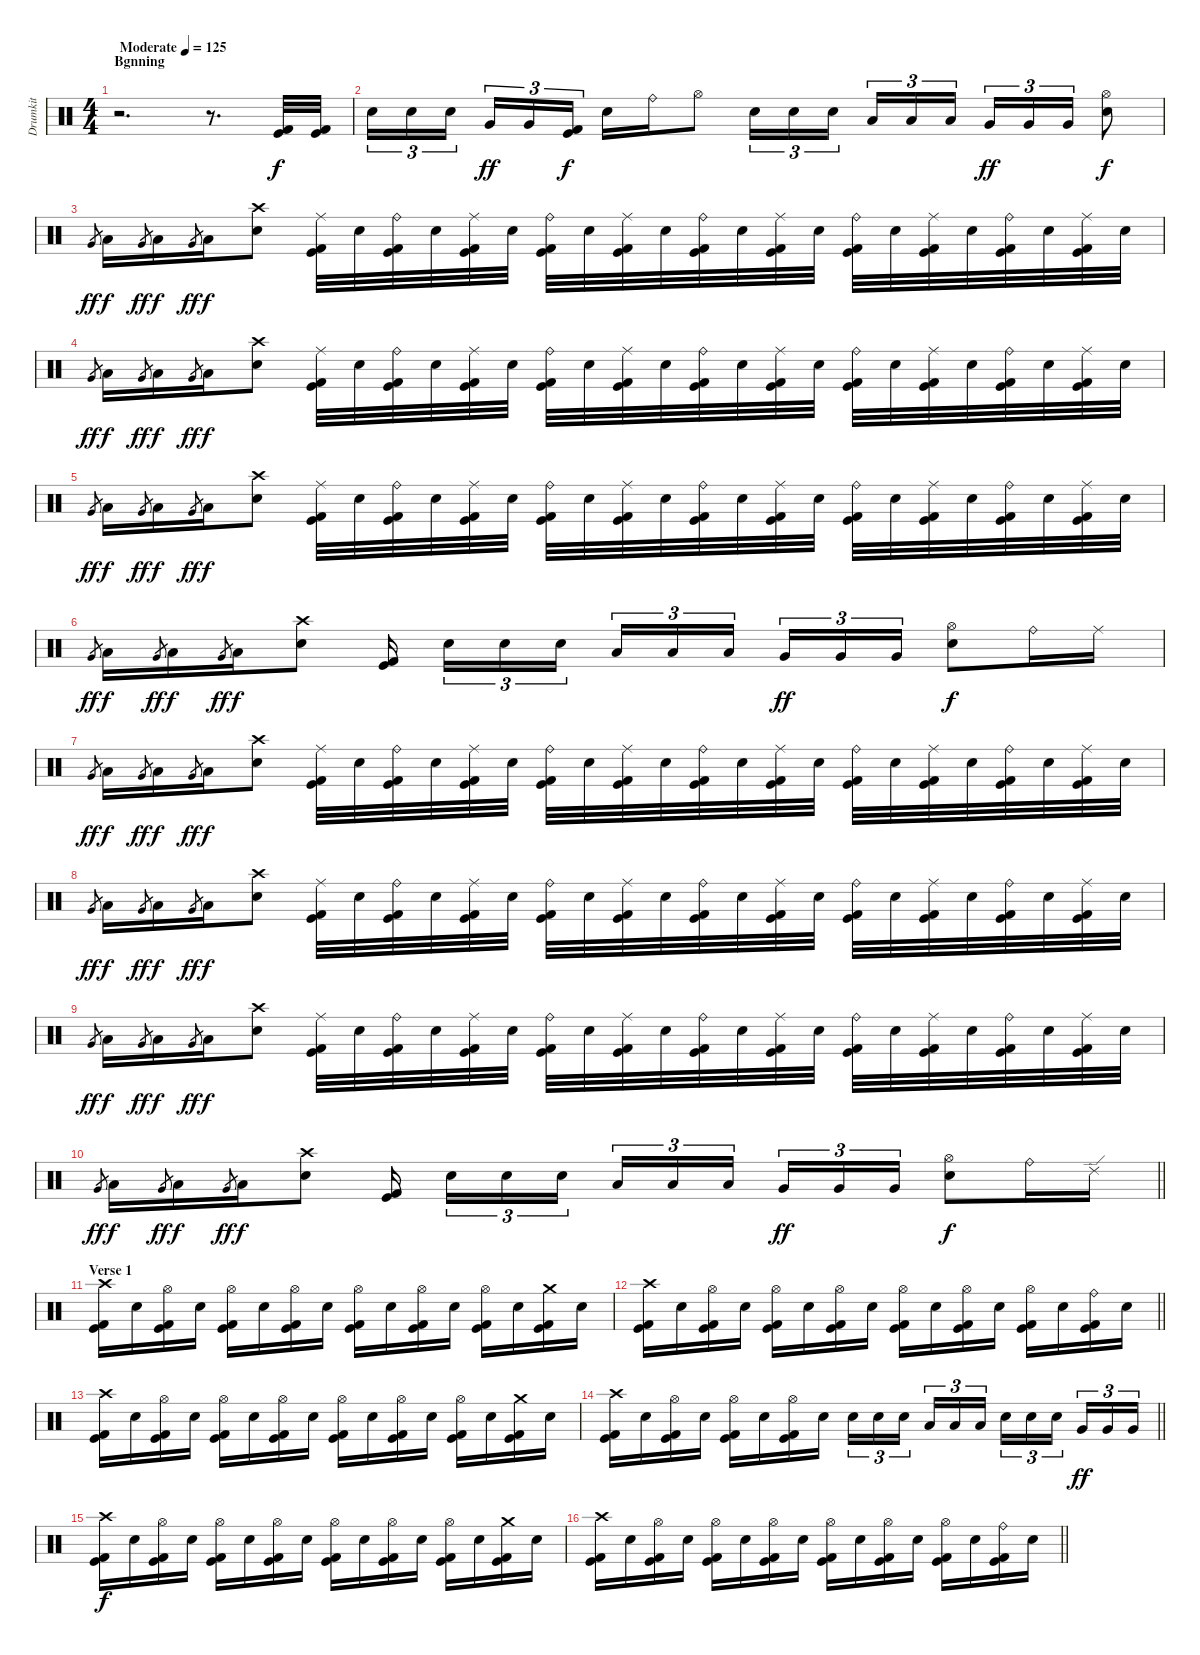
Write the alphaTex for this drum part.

\track ("Drumkit" "Drumkit") {instrument percussion}
\staff {score}
\articulation defaults
\ts (4 4)
\section ("" "Bgnning")
\tempo (125 "Moderate")
\clef neutral
\ks c
r.2{d dy f} r.8{d} ("Kick (hit)" "Kick (hit) 2").32 ("Kick (hit)" "Kick (hit) 2").32 |
"Electric Snare (hit)".16{tu (3 2)} "Electric Snare (hit)".16{tu (3 2)} "Electric Snare (hit)".16{tu (3 2) beam splitsecondary} "Very Low Tom (hit)".16{tu (3 2) dy ff} "Very Low Tom (hit)".16{tu (3 2)} ("Kick (hit)" "Kick (hit) 2").16{tu (3 2) dy f} "Electric Snare (hit)".16 "Ride (bell)".16 "Hi-Hat (open)".8 "Electric Snare (hit)".16{tu (3 2)} "Electric Snare (hit)".16{tu (3 2)} "Electric Snare (hit)".16{tu (3 2) beam splitsecondary} "Low Tom (hit)".16{tu (3 2)} "Low Tom (hit)".16{tu (3 2)} "Low Tom (hit)".16{tu (3 2)} "Very Low Tom (hit)".16{tu (3 2) dy ff} "Very Low Tom (hit)".16{tu (3 2)} "Very Low Tom (hit)".16{tu (3 2)} ("Hi-Hat (open)" "Electric Snare (hit)").8{dy f} |
"Very Low Tom (hit)".8{gr dy ff} "Low Tom (hit)".16{dy f} "Very Low Tom (hit)".8{gr dy ff} "Low Tom (hit)".16{dy f} "Very Low Tom (hit)".8{gr dy ff} "Low Tom (hit)".16{dy f} ("Crash high (hit)" "Electric Snare (hit)").8 ("Ride (middle)" "Kick (hit)" "Kick (hit) 2").32 "Electric Snare (hit)".32 ("Ride (bell)" "Kick (hit)" "Kick (hit) 2").32 "Electric Snare (hit)".32 ("Ride (middle)" "Kick (hit)" "Kick (hit) 2").32 "Electric Snare (hit)".32 ("Ride (bell)" "Kick (hit)" "Kick (hit) 2").32 "Electric Snare (hit)".32 ("Ride (middle)" "Kick (hit)" "Kick (hit) 2").32 "Electric Snare (hit)".32 ("Ride (bell)" "Kick (hit)" "Kick (hit) 2").32 "Electric Snare (hit)".32 ("Ride (middle)" "Kick (hit)" "Kick (hit) 2").32 "Electric Snare (hit)".32 ("Ride (bell)" "Kick (hit)" "Kick (hit) 2").32 "Electric Snare (hit)".32 ("Ride (middle)" "Kick (hit)" "Kick (hit) 2").32 "Electric Snare (hit)".32 ("Ride (bell)" "Kick (hit)" "Kick (hit) 2").32 "Electric Snare (hit)".32 ("Ride (middle)" "Kick (hit)" "Kick (hit) 2").32 "Electric Snare (hit)".32 |
"Very Low Tom (hit)".8{gr dy ff} "Low Tom (hit)".16{dy f} "Very Low Tom (hit)".8{gr dy ff} "Low Tom (hit)".16{dy f} "Very Low Tom (hit)".8{gr dy ff} "Low Tom (hit)".16{dy f} ("Crash high (hit)" "Electric Snare (hit)").8 ("Ride (middle)" "Kick (hit)" "Kick (hit) 2").32 "Electric Snare (hit)".32 ("Ride (bell)" "Kick (hit)" "Kick (hit) 2").32 "Electric Snare (hit)".32 ("Ride (middle)" "Kick (hit)" "Kick (hit) 2").32 "Electric Snare (hit)".32 ("Ride (bell)" "Kick (hit)" "Kick (hit) 2").32 "Electric Snare (hit)".32 ("Ride (middle)" "Kick (hit)" "Kick (hit) 2").32 "Electric Snare (hit)".32 ("Ride (bell)" "Kick (hit)" "Kick (hit) 2").32 "Electric Snare (hit)".32 ("Ride (middle)" "Kick (hit)" "Kick (hit) 2").32 "Electric Snare (hit)".32 ("Ride (bell)" "Kick (hit)" "Kick (hit) 2").32 "Electric Snare (hit)".32 ("Ride (middle)" "Kick (hit)" "Kick (hit) 2").32 "Electric Snare (hit)".32 ("Ride (bell)" "Kick (hit)" "Kick (hit) 2").32 "Electric Snare (hit)".32 ("Ride (middle)" "Kick (hit)" "Kick (hit) 2").32 "Electric Snare (hit)".32 |
"Very Low Tom (hit)".8{gr dy ff} "Low Tom (hit)".16{dy f} "Very Low Tom (hit)".8{gr dy ff} "Low Tom (hit)".16{dy f} "Very Low Tom (hit)".8{gr dy ff} "Low Tom (hit)".16{dy f} ("Crash high (hit)" "Electric Snare (hit)").8 ("Ride (middle)" "Kick (hit)" "Kick (hit) 2").32 "Electric Snare (hit)".32 ("Ride (bell)" "Kick (hit)" "Kick (hit) 2").32 "Electric Snare (hit)".32 ("Ride (middle)" "Kick (hit)" "Kick (hit) 2").32 "Electric Snare (hit)".32 ("Ride (bell)" "Kick (hit)" "Kick (hit) 2").32 "Electric Snare (hit)".32 ("Ride (middle)" "Kick (hit)" "Kick (hit) 2").32 "Electric Snare (hit)".32 ("Ride (bell)" "Kick (hit)" "Kick (hit) 2").32 "Electric Snare (hit)".32 ("Ride (middle)" "Kick (hit)" "Kick (hit) 2").32 "Electric Snare (hit)".32 ("Ride (bell)" "Kick (hit)" "Kick (hit) 2").32 "Electric Snare (hit)".32 ("Ride (middle)" "Kick (hit)" "Kick (hit) 2").32 "Electric Snare (hit)".32 ("Ride (bell)" "Kick (hit)" "Kick (hit) 2").32 "Electric Snare (hit)".32 ("Ride (middle)" "Kick (hit)" "Kick (hit) 2").32 "Electric Snare (hit)".32 |
"Very Low Tom (hit)".8{gr dy ff} "Low Tom (hit)".16{dy f} "Very Low Tom (hit)".8{gr dy ff} "Low Tom (hit)".16{dy f} "Very Low Tom (hit)".8{gr dy ff} "Low Tom (hit)".16{dy f} ("Crash high (hit)" "Electric Snare (hit)").8 ("Kick (hit)" "Kick (hit) 2").16{beam splitsecondary} "Electric Snare (hit)".16{tu (3 2)} "Electric Snare (hit)".16{tu (3 2)} "Electric Snare (hit)".16{tu (3 2)} "Low Tom (hit)".16{tu (3 2)} "Low Tom (hit)".16{tu (3 2)} "Low Tom (hit)".16{tu (3 2) beam splitsecondary} "Very Low Tom (hit)".16{tu (3 2) dy ff} "Very Low Tom (hit)".16{tu (3 2)} "Very Low Tom (hit)".16{tu (3 2)} ("Hi-Hat (open)" "Electric Snare (hit)").8{dy f} "Ride (bell)".16 "Ride (middle)".16 |
"Very Low Tom (hit)".8{gr dy ff} "Low Tom (hit)".16{dy f} "Very Low Tom (hit)".8{gr dy ff} "Low Tom (hit)".16{dy f} "Very Low Tom (hit)".8{gr dy ff} "Low Tom (hit)".16{dy f} ("Crash high (hit)" "Electric Snare (hit)").8 ("Ride (middle)" "Kick (hit)" "Kick (hit) 2").32 "Electric Snare (hit)".32 ("Ride (bell)" "Kick (hit)" "Kick (hit) 2").32 "Electric Snare (hit)".32 ("Ride (middle)" "Kick (hit)" "Kick (hit) 2").32 "Electric Snare (hit)".32 ("Ride (bell)" "Kick (hit)" "Kick (hit) 2").32 "Electric Snare (hit)".32 ("Ride (middle)" "Kick (hit)" "Kick (hit) 2").32 "Electric Snare (hit)".32 ("Ride (bell)" "Kick (hit)" "Kick (hit) 2").32 "Electric Snare (hit)".32 ("Ride (middle)" "Kick (hit)" "Kick (hit) 2").32 "Electric Snare (hit)".32 ("Ride (bell)" "Kick (hit)" "Kick (hit) 2").32 "Electric Snare (hit)".32 ("Ride (middle)" "Kick (hit)" "Kick (hit) 2").32 "Electric Snare (hit)".32 ("Ride (bell)" "Kick (hit)" "Kick (hit) 2").32 "Electric Snare (hit)".32 ("Ride (middle)" "Kick (hit)" "Kick (hit) 2").32 "Electric Snare (hit)".32 |
"Very Low Tom (hit)".8{gr dy ff} "Low Tom (hit)".16{dy f} "Very Low Tom (hit)".8{gr dy ff} "Low Tom (hit)".16{dy f} "Very Low Tom (hit)".8{gr dy ff} "Low Tom (hit)".16{dy f} ("Crash high (hit)" "Electric Snare (hit)").8 ("Ride (middle)" "Kick (hit)" "Kick (hit) 2").32 "Electric Snare (hit)".32 ("Ride (bell)" "Kick (hit)" "Kick (hit) 2").32 "Electric Snare (hit)".32 ("Ride (middle)" "Kick (hit)" "Kick (hit) 2").32 "Electric Snare (hit)".32 ("Ride (bell)" "Kick (hit)" "Kick (hit) 2").32 "Electric Snare (hit)".32 ("Ride (middle)" "Kick (hit)" "Kick (hit) 2").32 "Electric Snare (hit)".32 ("Ride (bell)" "Kick (hit)" "Kick (hit) 2").32 "Electric Snare (hit)".32 ("Ride (middle)" "Kick (hit)" "Kick (hit) 2").32 "Electric Snare (hit)".32 ("Ride (bell)" "Kick (hit)" "Kick (hit) 2").32 "Electric Snare (hit)".32 ("Ride (middle)" "Kick (hit)" "Kick (hit) 2").32 "Electric Snare (hit)".32 ("Ride (bell)" "Kick (hit)" "Kick (hit) 2").32 "Electric Snare (hit)".32 ("Ride (middle)" "Kick (hit)" "Kick (hit) 2").32 "Electric Snare (hit)".32 |
"Very Low Tom (hit)".8{gr dy ff} "Low Tom (hit)".16{dy f} "Very Low Tom (hit)".8{gr dy ff} "Low Tom (hit)".16{dy f} "Very Low Tom (hit)".8{gr dy ff} "Low Tom (hit)".16{dy f} ("Crash high (hit)" "Electric Snare (hit)").8 ("Ride (middle)" "Kick (hit)" "Kick (hit) 2").32 "Electric Snare (hit)".32 ("Ride (bell)" "Kick (hit)" "Kick (hit) 2").32 "Electric Snare (hit)".32 ("Ride (middle)" "Kick (hit)" "Kick (hit) 2").32 "Electric Snare (hit)".32 ("Ride (bell)" "Kick (hit)" "Kick (hit) 2").32 "Electric Snare (hit)".32 ("Ride (middle)" "Kick (hit)" "Kick (hit) 2").32 "Electric Snare (hit)".32 ("Ride (bell)" "Kick (hit)" "Kick (hit) 2").32 "Electric Snare (hit)".32 ("Ride (middle)" "Kick (hit)" "Kick (hit) 2").32 "Electric Snare (hit)".32 ("Ride (bell)" "Kick (hit)" "Kick (hit) 2").32 "Electric Snare (hit)".32 ("Ride (middle)" "Kick (hit)" "Kick (hit) 2").32 "Electric Snare (hit)".32 ("Ride (bell)" "Kick (hit)" "Kick (hit) 2").32 "Electric Snare (hit)".32 ("Ride (middle)" "Kick (hit)" "Kick (hit) 2").32 "Electric Snare (hit)".32 |
\barLineRight lightlight "Very Low Tom (hit)".8{gr dy ff} "Low Tom (hit)".16{dy f} "Very Low Tom (hit)".8{gr dy ff} "Low Tom (hit)".16{dy f} "Very Low Tom (hit)".8{gr dy ff} "Low Tom (hit)".16{dy f}
("Crash high (hit)" "Electric Snare (hit)").8 ("Kick (hit)" "Kick (hit) 2").16{beam splitsecondary} "Electric Snare (hit)".16{tu (3 2)} "Electric Snare (hit)".16{tu (3 2)} "Electric Snare (hit)".16{tu (3 2)} "Low Tom (hit)".16{tu (3 2)} "Low Tom (hit)".16{tu (3 2)} "Low Tom (hit)".16{tu (3 2) beam splitsecondary} "Very Low Tom (hit)".16{tu (3 2) dy ff} "Very Low Tom (hit)".16{tu (3 2)} "Very Low Tom (hit)".16{tu (3 2)} ("Hi-Hat (open)" "Electric Snare (hit)").8{dy f} "Ride (bell)".16 "Ride (edge) 2".16 |
\section ("" "Verse 1")
("Crash high (hit)" "Kick (hit)" "Kick (hit) 2").16 "Electric Snare (hit)".16 ("Hi-Hat (open)" "Kick (hit)" "Kick (hit) 2").16 "Electric Snare (hit)".16 ("Hi-Hat (open)" "Kick (hit)" "Kick (hit) 2").16 "Electric Snare (hit)".16 ("Hi-Hat (open)" "Kick (hit)" "Kick (hit) 2").16 "Electric Snare (hit)".16 ("Hi-Hat (open)" "Kick (hit)" "Kick (hit) 2").16 "Electric Snare (hit)".16 ("Hi-Hat (open)" "Kick (hit)" "Kick (hit) 2").16 "Electric Snare (hit)".16 ("Hi-Hat (open)" "Kick (hit)" "Kick (hit) 2").16 "Electric Snare (hit)".16 ("Crash medium (hit)" "Kick (hit)" "Kick (hit) 2").16 "Electric Snare (hit)".16 |
\barLineRight lightlight
("Crash high (hit)" "Kick (hit)" "Kick (hit) 2").16 "Electric Snare (hit)".16 ("Hi-Hat (open)" "Kick (hit)" "Kick (hit) 2").16 "Electric Snare (hit)".16 ("Hi-Hat (open)" "Kick (hit)" "Kick (hit) 2").16 "Electric Snare (hit)".16 ("Hi-Hat (open)" "Kick (hit)" "Kick (hit) 2").16 "Electric Snare (hit)".16 ("Hi-Hat (open)" "Kick (hit)" "Kick (hit) 2").16 "Electric Snare (hit)".16 ("Hi-Hat (open)" "Kick (hit)" "Kick (hit) 2").16 "Electric Snare (hit)".16 ("Hi-Hat (open)" "Kick (hit)" "Kick (hit) 2").16 "Electric Snare (hit)".16 ("Ride (bell)" "Kick (hit)" "Kick (hit) 2").16 "Electric Snare (hit)".16 |
("Crash high (hit)" "Kick (hit)" "Kick (hit) 2").16 "Electric Snare (hit)".16 ("Hi-Hat (open)" "Kick (hit)" "Kick (hit) 2").16 "Electric Snare (hit)".16 ("Hi-Hat (open)" "Kick (hit)" "Kick (hit) 2").16 "Electric Snare (hit)".16 ("Hi-Hat (open)" "Kick (hit)" "Kick (hit) 2").16 "Electric Snare (hit)".16 ("Hi-Hat (open)" "Kick (hit)" "Kick (hit) 2").16 "Electric Snare (hit)".16 ("Hi-Hat (open)" "Kick (hit)" "Kick (hit) 2").16 "Electric Snare (hit)".16 ("Hi-Hat (open)" "Kick (hit)" "Kick (hit) 2").16 "Electric Snare (hit)".16 ("Crash medium (hit)" "Kick (hit)" "Kick (hit) 2").16 "Electric Snare (hit)".16 |
\barLineRight lightlight
("Crash high (hit)" "Kick (hit)" "Kick (hit) 2").16 "Electric Snare (hit)".16 ("Hi-Hat (open)" "Kick (hit)" "Kick (hit) 2").16 "Electric Snare (hit)".16 ("Hi-Hat (open)" "Kick (hit)" "Kick (hit) 2").16 "Electric Snare (hit)".16 ("Hi-Hat (open)" "Kick (hit)" "Kick (hit) 2").16 "Electric Snare (hit)".16 "Electric Snare (hit)".16{tu (3 2)} "Electric Snare (hit)".16{tu (3 2)} "Electric Snare (hit)".16{tu (3 2) beam splitsecondary} "Low Tom (hit)".16{tu (3 2)} "Low Tom (hit)".16{tu (3 2)} "Low Tom (hit)".16{tu (3 2)} "Electric Snare (hit)".16{tu (3 2)} "Electric Snare (hit)".16{tu (3 2)} "Electric Snare (hit)".16{tu (3 2) beam splitsecondary} "Very Low Tom (hit)".16{tu (3 2) dy ff} "Very Low Tom (hit)".16{tu (3 2)} "Very Low Tom (hit)".16{tu (3 2)} |
("Crash high (hit)" "Kick (hit)" "Kick (hit) 2").16{dy f} "Electric Snare (hit)".16 ("Hi-Hat (open)" "Kick (hit)" "Kick (hit) 2").16 "Electric Snare (hit)".16 ("Hi-Hat (open)" "Kick (hit)" "Kick (hit) 2").16 "Electric Snare (hit)".16 ("Hi-Hat (open)" "Kick (hit)" "Kick (hit) 2").16 "Electric Snare (hit)".16 ("Hi-Hat (open)" "Kick (hit)" "Kick (hit) 2").16 "Electric Snare (hit)".16 ("Hi-Hat (open)" "Kick (hit)" "Kick (hit) 2").16 "Electric Snare (hit)".16 ("Hi-Hat (open)" "Kick (hit)" "Kick (hit) 2").16 "Electric Snare (hit)".16 ("Crash medium (hit)" "Kick (hit)" "Kick (hit) 2").16 "Electric Snare (hit)".16 |
\barLineRight lightlight
("Crash high (hit)" "Kick (hit)" "Kick (hit) 2").16 "Electric Snare (hit)".16 ("Hi-Hat (open)" "Kick (hit)" "Kick (hit) 2").16 "Electric Snare (hit)".16 ("Hi-Hat (open)" "Kick (hit)" "Kick (hit) 2").16 "Electric Snare (hit)".16 ("Hi-Hat (open)" "Kick (hit)" "Kick (hit) 2").16 "Electric Snare (hit)".16 ("Hi-Hat (open)" "Kick (hit)" "Kick (hit) 2").16 "Electric Snare (hit)".16 ("Hi-Hat (open)" "Kick (hit)" "Kick (hit) 2").16 "Electric Snare (hit)".16 ("Hi-Hat (open)" "Kick (hit)" "Kick (hit) 2").16 "Electric Snare (hit)".16 ("Ride (bell)" "Kick (hit)" "Kick (hit) 2").16 "Electric Snare (hit)".16
